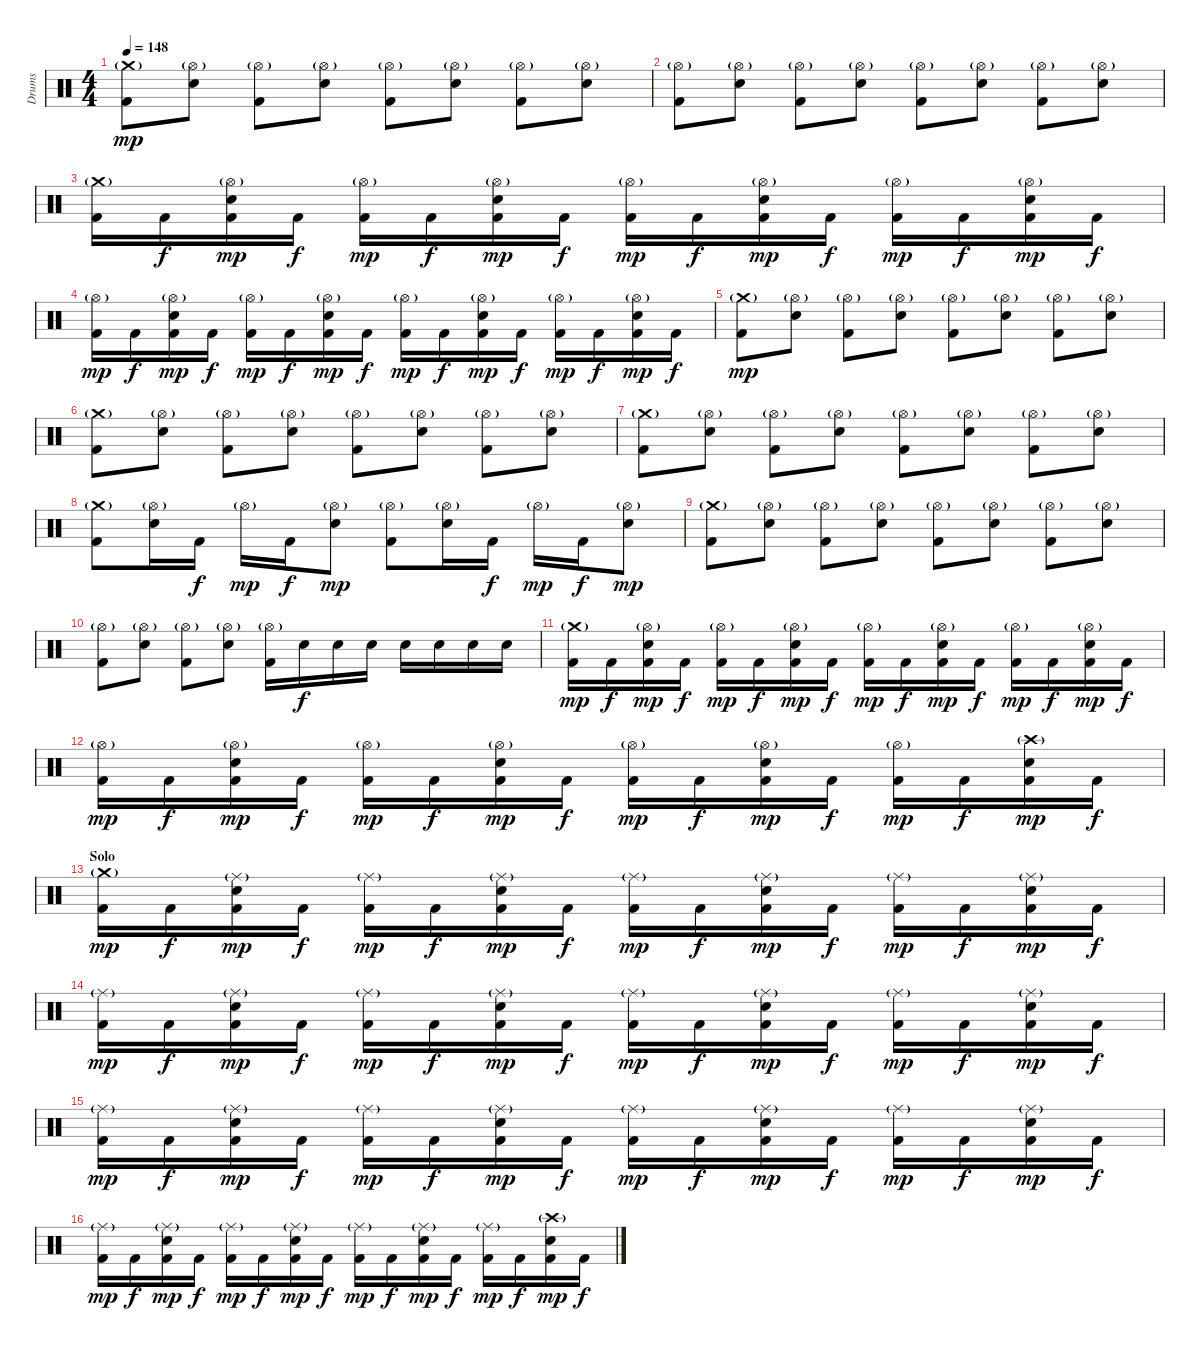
\track ("Drums" "Drums") {instrument percussion}
\staff {score}
\articulation defaults
\ts (4 4)
\tempo 148
\clef neutral
\ks c
("Crash medium (hit)"{g} "Kick (hit) 2").8{dy mp} ("Hi-Hat (open)"{g} "Snare (hit) 2").8 ("Hi-Hat (open)"{g} "Kick (hit) 2").8 ("Hi-Hat (open)"{g} "Snare (hit) 2").8 ("Hi-Hat (open)"{g} "Kick (hit) 2").8 ("Hi-Hat (open)"{g} "Snare (hit) 2").8 ("Hi-Hat (open)"{g} "Kick (hit) 2").8 ("Hi-Hat (open)"{g} "Snare (hit) 2").8 |
("Hi-Hat (open)"{g} "Kick (hit) 2").8 ("Hi-Hat (open)"{g} "Snare (hit) 2").8 ("Hi-Hat (open)"{g} "Kick (hit) 2").8 ("Hi-Hat (open)"{g} "Snare (hit) 2").8 ("Hi-Hat (open)"{g} "Kick (hit) 2").8 ("Hi-Hat (open)"{g} "Snare (hit) 2").8 ("Hi-Hat (open)"{g} "Kick (hit) 2").8 ("Hi-Hat (open)"{g} "Snare (hit) 2").8 |
("Crash medium (hit)"{g} "Kick (hit) 2").16 "Kick (hit) 2".16{dy f} ("Hi-Hat (open)"{g} "Snare (hit) 2" "Kick (hit) 2").16{dy mp} "Kick (hit) 2".16{dy f} ("Hi-Hat (open)"{g} "Kick (hit) 2").16{dy mp} "Kick (hit) 2".16{dy f} ("Hi-Hat (open)"{g} "Snare (hit) 2" "Kick (hit) 2").16{dy mp} "Kick (hit) 2".16{dy f} ("Hi-Hat (open)"{g} "Kick (hit) 2").16{dy mp} "Kick (hit) 2".16{dy f} ("Hi-Hat (open)"{g} "Snare (hit) 2" "Kick (hit) 2").16{dy mp} "Kick (hit) 2".16{dy f} ("Hi-Hat (open)"{g} "Kick (hit) 2").16{dy mp} "Kick (hit) 2".16{dy f} ("Hi-Hat (open)"{g} "Snare (hit) 2" "Kick (hit) 2").16{dy mp} "Kick (hit) 2".16{dy f} |
("Hi-Hat (open)"{g} "Kick (hit) 2").16{dy mp} "Kick (hit) 2".16{dy f} ("Hi-Hat (open)"{g} "Snare (hit) 2" "Kick (hit) 2").16{dy mp} "Kick (hit) 2".16{dy f} ("Hi-Hat (open)"{g} "Kick (hit) 2").16{dy mp} "Kick (hit) 2".16{dy f} ("Hi-Hat (open)"{g} "Snare (hit) 2" "Kick (hit) 2").16{dy mp} "Kick (hit) 2".16{dy f} ("Hi-Hat (open)"{g} "Kick (hit) 2").16{dy mp} "Kick (hit) 2".16{dy f} ("Hi-Hat (open)"{g} "Snare (hit) 2" "Kick (hit) 2").16{dy mp} "Kick (hit) 2".16{dy f} ("Hi-Hat (open)"{g} "Kick (hit) 2").16{dy mp} "Kick (hit) 2".16{dy f} ("Hi-Hat (open)"{g} "Snare (hit) 2" "Kick (hit) 2").16{dy mp} "Kick (hit) 2".16{dy f} |
("Crash medium (hit)"{g} "Kick (hit) 2").8{dy mp} ("Hi-Hat (open)"{g} "Snare (hit) 2").8 ("Hi-Hat (open)"{g} "Kick (hit) 2").8 ("Hi-Hat (open)"{g} "Snare (hit) 2").8 ("Hi-Hat (open)"{g} "Kick (hit) 2").8 ("Hi-Hat (open)"{g} "Snare (hit) 2").8 ("Hi-Hat (open)"{g} "Kick (hit) 2").8 ("Hi-Hat (open)"{g} "Snare (hit) 2").8 |
("Crash medium (hit)"{g} "Kick (hit) 2").8 ("Hi-Hat (open)"{g} "Snare (hit) 2").8 ("Hi-Hat (open)"{g} "Kick (hit) 2").8 ("Hi-Hat (open)"{g} "Snare (hit) 2").8 ("Hi-Hat (open)"{g} "Kick (hit) 2").8 ("Hi-Hat (open)"{g} "Snare (hit) 2").8 ("Hi-Hat (open)"{g} "Kick (hit) 2").8 ("Hi-Hat (open)"{g} "Snare (hit) 2").8 |
("Crash medium (hit)"{g} "Kick (hit) 2").8 ("Hi-Hat (open)"{g} "Snare (hit) 2").8 ("Hi-Hat (open)"{g} "Kick (hit) 2").8 ("Hi-Hat (open)"{g} "Snare (hit) 2").8 ("Hi-Hat (open)"{g} "Kick (hit) 2").8 ("Hi-Hat (open)"{g} "Snare (hit) 2").8 ("Hi-Hat (open)"{g} "Kick (hit) 2").8 ("Hi-Hat (open)"{g} "Snare (hit) 2").8 |
("Crash medium (hit)"{g} "Kick (hit) 2").8 ("Hi-Hat (open)"{g} "Snare (hit) 2").16 "Kick (hit) 2".16{dy f} "Hi-Hat (open)"{g}.16{dy mp} "Kick (hit) 2".16{dy f} ("Hi-Hat (open)"{g} "Snare (hit) 2").8{dy mp} ("Hi-Hat (open)"{g} "Kick (hit) 2").8 ("Hi-Hat (open)"{g} "Snare (hit) 2").16 "Kick (hit) 2".16{dy f} "Hi-Hat (open)"{g}.16{dy mp} "Kick (hit) 2".16{dy f} ("Hi-Hat (open)"{g} "Snare (hit) 2").8{dy mp} |
("Crash medium (hit)"{g} "Kick (hit) 2").8 ("Hi-Hat (open)"{g} "Snare (hit) 2").8 ("Hi-Hat (open)"{g} "Kick (hit) 2").8 ("Hi-Hat (open)"{g} "Snare (hit) 2").8 ("Hi-Hat (open)"{g} "Kick (hit) 2").8 ("Hi-Hat (open)"{g} "Snare (hit) 2").8 ("Hi-Hat (open)"{g} "Kick (hit) 2").8 ("Hi-Hat (open)"{g} "Snare (hit) 2").8 |
("Hi-Hat (open)"{g} "Kick (hit) 2").8 ("Hi-Hat (open)"{g} "Snare (hit) 2").8 ("Hi-Hat (open)"{g} "Kick (hit) 2").8 ("Hi-Hat (open)"{g} "Snare (hit) 2").8 ("Hi-Hat (open)"{g} "Kick (hit) 2").16 "Snare (hit) 2".16{dy f} "Snare (hit) 2".16 "Snare (hit) 2".16 "Snare (hit) 2".16 "Snare (hit) 2".16 "Snare (hit) 2".16 "Snare (hit) 2".16 |
("Crash medium (hit)"{g} "Kick (hit) 2").16{dy mp} "Kick (hit) 2".16{dy f} ("Hi-Hat (open)"{g} "Snare (hit) 2" "Kick (hit) 2").16{dy mp} "Kick (hit) 2".16{dy f} ("Hi-Hat (open)"{g} "Kick (hit) 2").16{dy mp} "Kick (hit) 2".16{dy f} ("Hi-Hat (open)"{g} "Snare (hit) 2" "Kick (hit) 2").16{dy mp} "Kick (hit) 2".16{dy f} ("Hi-Hat (open)"{g} "Kick (hit) 2").16{dy mp} "Kick (hit) 2".16{dy f} ("Hi-Hat (open)"{g} "Snare (hit) 2" "Kick (hit) 2").16{dy mp} "Kick (hit) 2".16{dy f} ("Hi-Hat (open)"{g} "Kick (hit) 2").16{dy mp} "Kick (hit) 2".16{dy f} ("Hi-Hat (open)"{g} "Snare (hit) 2" "Kick (hit) 2").16{dy mp} "Kick (hit) 2".16{dy f} |
("Hi-Hat (open)"{g} "Kick (hit) 2").16{dy mp} "Kick (hit) 2".16{dy f} ("Hi-Hat (open)"{g} "Snare (hit) 2" "Kick (hit) 2").16{dy mp} "Kick (hit) 2".16{dy f} ("Hi-Hat (open)"{g} "Kick (hit) 2").16{dy mp} "Kick (hit) 2".16{dy f} ("Hi-Hat (open)"{g} "Snare (hit) 2" "Kick (hit) 2").16{dy mp} "Kick (hit) 2".16{dy f} ("Hi-Hat (open)"{g} "Kick (hit) 2").16{dy mp} "Kick (hit) 2".16{dy f} ("Hi-Hat (open)"{g} "Snare (hit) 2" "Kick (hit) 2").16{dy mp} "Kick (hit) 2".16{dy f} ("Hi-Hat (open)"{g} "Kick (hit) 2").16{dy mp} "Kick (hit) 2".16{dy f} ("Crash high (hit)"{g} "Snare (hit) 2" "Kick (hit) 2").16{dy mp} "Kick (hit) 2".16{dy f} |
\section ("" "Solo")
("Crash medium (hit)"{g} "Kick (hit) 2").16{dy mp} "Kick (hit) 2".16{dy f} ("Ride (middle)"{g} "Snare (hit) 2" "Kick (hit) 2").16{dy mp} "Kick (hit) 2".16{dy f} ("Ride (middle)"{g} "Kick (hit) 2").16{dy mp} "Kick (hit) 2".16{dy f} ("Ride (middle)"{g} "Snare (hit) 2" "Kick (hit) 2").16{dy mp} "Kick (hit) 2".16{dy f} ("Ride (middle)"{g} "Kick (hit) 2").16{dy mp} "Kick (hit) 2".16{dy f} ("Ride (middle)"{g} "Snare (hit) 2" "Kick (hit) 2").16{dy mp} "Kick (hit) 2".16{dy f} ("Ride (middle)"{g} "Kick (hit) 2").16{dy mp} "Kick (hit) 2".16{dy f} ("Ride (middle)"{g} "Snare (hit) 2" "Kick (hit) 2").16{dy mp} "Kick (hit) 2".16{dy f} |
("Ride (middle)"{g} "Kick (hit) 2").16{dy mp} "Kick (hit) 2".16{dy f} ("Ride (middle)"{g} "Snare (hit) 2" "Kick (hit) 2").16{dy mp} "Kick (hit) 2".16{dy f} ("Ride (middle)"{g} "Kick (hit) 2").16{dy mp} "Kick (hit) 2".16{dy f} ("Ride (middle)"{g} "Snare (hit) 2" "Kick (hit) 2").16{dy mp} "Kick (hit) 2".16{dy f} ("Ride (middle)"{g} "Kick (hit) 2").16{dy mp} "Kick (hit) 2".16{dy f} ("Ride (middle)"{g} "Snare (hit) 2" "Kick (hit) 2").16{dy mp} "Kick (hit) 2".16{dy f} ("Ride (middle)"{g} "Kick (hit) 2").16{dy mp} "Kick (hit) 2".16{dy f} ("Ride (middle)"{g} "Snare (hit) 2" "Kick (hit) 2").16{dy mp} "Kick (hit) 2".16{dy f} |
("Ride (middle)"{g} "Kick (hit) 2").16{dy mp} "Kick (hit) 2".16{dy f} ("Ride (middle)"{g} "Snare (hit) 2" "Kick (hit) 2").16{dy mp} "Kick (hit) 2".16{dy f} ("Ride (middle)"{g} "Kick (hit) 2").16{dy mp} "Kick (hit) 2".16{dy f} ("Ride (middle)"{g} "Snare (hit) 2" "Kick (hit) 2").16{dy mp} "Kick (hit) 2".16{dy f} ("Ride (middle)"{g} "Kick (hit) 2").16{dy mp} "Kick (hit) 2".16{dy f} ("Ride (middle)"{g} "Snare (hit) 2" "Kick (hit) 2").16{dy mp} "Kick (hit) 2".16{dy f} ("Ride (middle)"{g} "Kick (hit) 2").16{dy mp} "Kick (hit) 2".16{dy f} ("Ride (middle)"{g} "Snare (hit) 2" "Kick (hit) 2").16{dy mp} "Kick (hit) 2".16{dy f} |
("Ride (middle)"{g} "Kick (hit) 2").16{dy mp} "Kick (hit) 2".16{dy f} ("Ride (middle)"{g} "Snare (hit) 2" "Kick (hit) 2").16{dy mp} "Kick (hit) 2".16{dy f} ("Ride (middle)"{g} "Kick (hit) 2").16{dy mp} "Kick (hit) 2".16{dy f} ("Ride (middle)"{g} "Snare (hit) 2" "Kick (hit) 2").16{dy mp} "Kick (hit) 2".16{dy f} ("Ride (middle)"{g} "Kick (hit) 2").16{dy mp} "Kick (hit) 2".16{dy f} ("Ride (middle)"{g} "Snare (hit) 2" "Kick (hit) 2").16{dy mp} "Kick (hit) 2".16{dy f} ("Ride (middle)"{g} "Kick (hit) 2").16{dy mp} "Kick (hit) 2".16{dy f} ("Crash high (hit)"{g} "Snare (hit) 2" "Kick (hit) 2").16{dy mp} "Kick (hit) 2".16{dy f}
